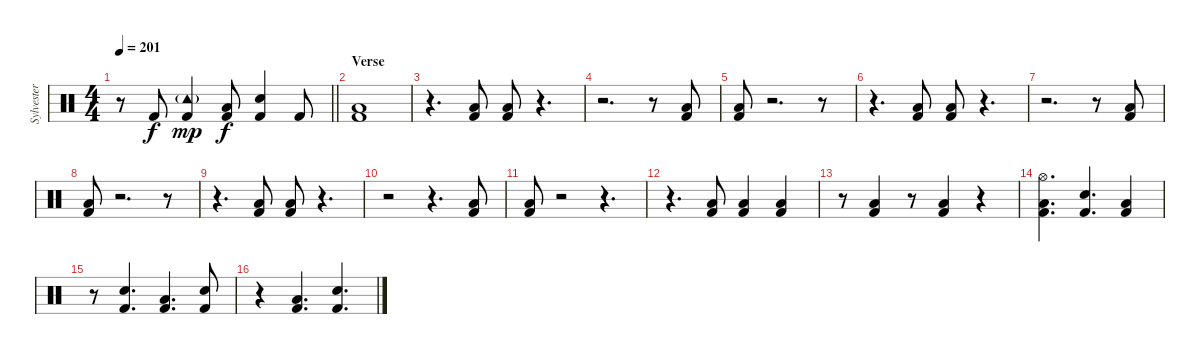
\track ("Sylvester Schlegel" "Sylvester ") {instrument percussion}
\staff {score}
\articulation defaults
\ts (4 4)
\tempo 201
\clef neutral
\barLineRight lightlight
\ks c
r.8{dy f} "Kick (hit) 2".8 ("Tambourine (hit)"{g} "Kick (hit) 2").4{dy mp} ("Low Floor Tom (hit)" "Kick (hit) 2").8{dy f} ("Snare (hit) 2" "Kick (hit) 2").4 "Kick (hit) 2".8 |
\section ("" "Verse")
("Low Tom (hit)" "Kick (hit) 2").1 |
r.4{d} ("Low Tom (hit)" "Kick (hit) 2").8 ("Low Tom (hit)" "Kick (hit) 2").8 r.4{d} |
r.2{d} r.8 ("Low Tom (hit)" "Kick (hit) 2").8 |
("Low Tom (hit)" "Kick (hit) 2").8 r.2{d} r.8 |
r.4{d} ("Low Tom (hit)" "Kick (hit) 2").8 ("Low Tom (hit)" "Kick (hit) 2").8 r.4{d} |
r.2{d} r.8 ("Low Tom (hit)" "Kick (hit) 2").8 |
("Low Tom (hit)" "Kick (hit) 2").8 r.2{d} r.8 |
r.4{d} ("Low Tom (hit)" "Kick (hit) 2").8 ("Low Tom (hit)" "Kick (hit) 2").8 r.4{d} |
r.2 r.4{d} ("Low Tom (hit)" "Kick (hit) 2").8 |
("Low Tom (hit)" "Kick (hit) 2").8 r.2 r.4{d} |
r.4{d} ("Low Tom (hit)" "Kick (hit) 2").8 ("Low Tom (hit)" "Kick (hit) 2").4 ("Low Tom (hit)" "Kick (hit) 2").4 |
r.8 ("Low Tom (hit)" "Kick (hit) 2").4 r.8 ("Low Tom (hit)" "Kick (hit) 2").4 r.4 |
("Hi-Hat (open)" "Low Floor Tom (hit)" "Kick (hit) 2").4{d} ("Snare (hit) 2" "Kick (hit) 2").4{d} ("Low Floor Tom (hit)" "Kick (hit) 2").4 |
r.8 ("Snare (hit) 2" "Kick (hit) 2").4{d} ("Low Floor Tom (hit)" "Kick (hit) 2").4{d} ("Snare (hit) 2" "Kick (hit) 2").8 |
r.4 ("Low Floor Tom (hit)" "Kick (hit) 2").4{d} ("Snare (hit) 2" "Kick (hit) 2").4{d}
